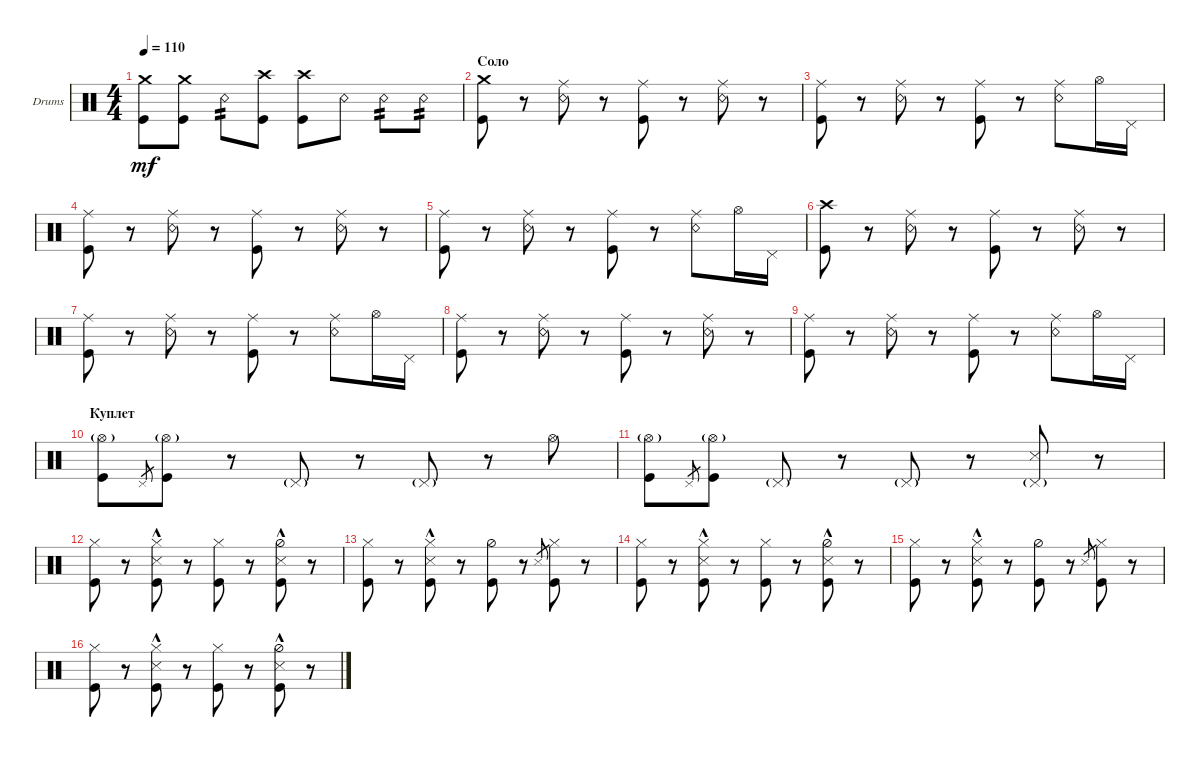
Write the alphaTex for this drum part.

\defaultSystemsLayout 4
\bracketExtendMode groupsimilarinstruments
\firstSystemTrackNameOrientation horizontal
\otherSystemsTrackNameOrientation horizontal
\track ("Drumkit" "Drums") {instrument percussion}
\staff {score}
\articulation defaults
\ts (4 4)
\tempo 110
\clef neutral
\scale
0.333333
\ks c
("Kick (hit)" "Crash medium (hit)").8{dy mf} ("Kick (hit)" "Crash medium (hit)").8 "Snare (rim shot)".8{tp 2} ("Kick (hit)" "Crash high (hit)").8 ("Kick (hit)" "Crash high (hit)").8 "Snare (rim shot)".8 "Snare (rim shot)".8{tp 2} "Snare (rim shot)".8{tp 2} |
\section ("" "Соло")
\scale
0.333333 ("Kick (hit)" "Crash medium (hit)").8 r.8 ("Snare (rim shot)" "Ride (middle)").8 r.8 ("Kick (hit)" "Ride (middle)").8 r.8 ("Snare (rim shot)" "Ride (middle)").8 r.8 |
\scale
0.333333 ("Kick (hit)" "Ride (middle)").8 r.8 ("Snare (rim shot)" "Ride (middle)").8 r.8 ("Kick (hit)" "Ride (middle)").8 r.8 ("Snare (rim shot)" "Ride (middle)").8 "Hi-Hat (open)".16 "Pedal Hi-Hat (hit)".16 |
\scale
0.333333 ("Kick (hit)" "Ride (middle)").8 r.8 ("Snare (rim shot)" "Ride (middle)").8 r.8 ("Kick (hit)" "Ride (middle)").8 r.8 ("Snare (rim shot)" "Ride (middle)").8 r.8 |
\scale
0.333333 ("Kick (hit)" "Ride (middle)").8 r.8 ("Snare (rim shot)" "Ride (middle)").8 r.8 ("Kick (hit)" "Ride (middle)").8 r.8 ("Snare (rim shot)" "Ride (middle)").8 "Hi-Hat (open)".16 "Pedal Hi-Hat (hit)".16 |
\scale
0.333333 ("Kick (hit)" "Crash high (hit)").8 r.8 ("Snare (rim shot)" "Ride (middle)").8 r.8 ("Kick (hit)" "Ride (middle)").8 r.8 ("Snare (rim shot)" "Ride (middle)").8 r.8 |
\scale
0.333333 ("Kick (hit)" "Ride (middle)").8 r.8 ("Snare (rim shot)" "Ride (middle)").8 r.8 ("Kick (hit)" "Ride (middle)").8 r.8 ("Snare (rim shot)" "Ride (middle)").8 "Hi-Hat (open)".16 "Pedal Hi-Hat (hit)".16 |
\scale
0.333333 ("Kick (hit)" "Ride (middle)").8 r.8 ("Snare (rim shot)" "Ride (middle)").8 r.8 ("Kick (hit)" "Ride (middle)").8 r.8 ("Snare (rim shot)" "Ride (middle)").8 r.8 |
\scale
0.333333 ("Kick (hit)" "Ride (middle)").8 r.8 ("Snare (rim shot)" "Ride (middle)").8 r.8 ("Kick (hit)" "Ride (middle)").8 r.8 ("Snare (rim shot)" "Ride (middle)").8 "Hi-Hat (open)".16 "Pedal Hi-Hat (hit)".16 |
\section ("" "Куплет")
\scale
0.333333 ("Hi-Hat (open)"{g} "Kick (hit)").8 "Pedal Hi-Hat (hit)".8{gr} ("Kick (hit)" "Hi-Hat (open)"{g}).8 r.8 "Pedal Hi-Hat (hit)"{g}.8 r.8 "Pedal Hi-Hat (hit)"{g}.8 r.8 "Hi-Hat (open)".8 |
\scale
0.333333 ("Hi-Hat (open)"{g} "Kick (hit)").8 "Pedal Hi-Hat (hit)".8{gr} ("Kick (hit)" "Hi-Hat (open)"{g}).8 "Pedal Hi-Hat (hit)"{g}.8 r.8 "Pedal Hi-Hat (hit)"{g}.8 r.8 ("Pedal Hi-Hat (hit)"{g} "Snare (side stick) 3").8 r.8 |
\scale
0.333333 ("Kick (hit)" "Hi-Hat (closed)").8 r.8 ("Snare (side stick) 3"{hac} "Hi-Hat (closed)" "Kick (hit)").8 r.8 ("Kick (hit)" "Hi-Hat (closed)").8 r.8 ("Snare (side stick) 3"{hac} "Hi-Hat (half)" "Kick (hit)").8 r.8 |
\scale
0.333333 ("Kick (hit)" "Hi-Hat (closed)").8 r.8 ("Snare (side stick) 3"{hac} "Hi-Hat (closed)" "Kick (hit)").8 r.8 ("Kick (hit)" "Hi-Hat (half)").8 r.8 "Snare (side stick) 3".8{gr} ("Hi-Hat (closed)" "Kick (hit)").8 r.8 |
\scale
0.333333 ("Kick (hit)" "Hi-Hat (closed)").8 r.8 ("Snare (side stick) 3"{hac} "Hi-Hat (closed)" "Kick (hit)").8 r.8 ("Kick (hit)" "Hi-Hat (closed)").8 r.8 ("Snare (side stick) 3"{hac} "Hi-Hat (half)" "Kick (hit)").8 r.8 |
\scale
0.333333 ("Kick (hit)" "Hi-Hat (closed)").8 r.8 ("Snare (side stick) 3"{hac} "Hi-Hat (closed)" "Kick (hit)").8 r.8 ("Kick (hit)" "Hi-Hat (half)").8 r.8 "Snare (side stick) 3".8{gr} ("Hi-Hat (closed)" "Kick (hit)").8 r.8 |
\scale
0.333333 ("Kick (hit)" "Hi-Hat (closed)").8 r.8 ("Snare (side stick) 3"{hac} "Hi-Hat (closed)" "Kick (hit)").8 r.8 ("Kick (hit)" "Hi-Hat (closed)").8 r.8 ("Snare (side stick) 3"{hac} "Hi-Hat (half)" "Kick (hit)").8 r.8
